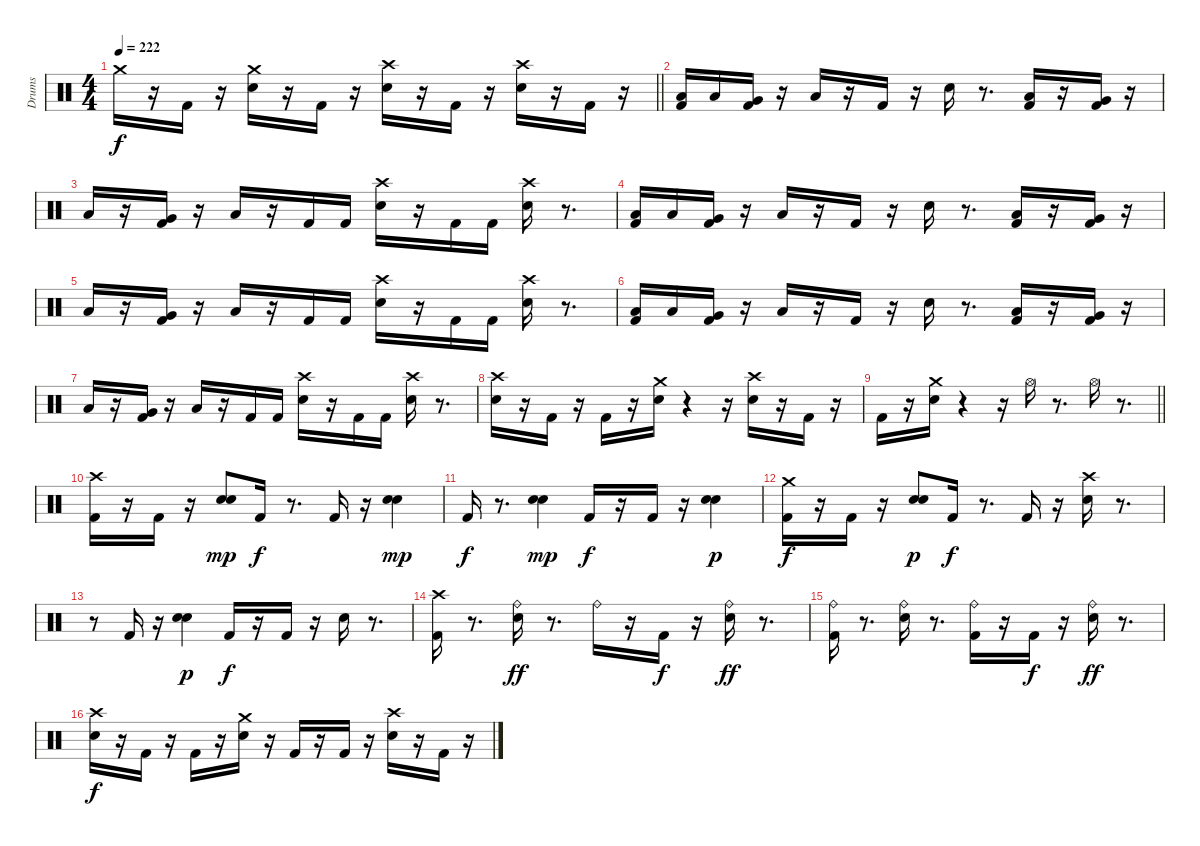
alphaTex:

\track ("Drums" "Drums") {instrument percussion}
\staff {score}
\articulation defaults
\ts (4 4)
\tempo 222
\clef neutral
\barLineRight lightlight
\ks c "Crash medium (hit)".16{dy f}
r.16 "Kick (hit) 2".16 r.16 ("Snare (hit) 2" "Crash medium (hit)").16 r.16 "Kick (hit) 2".16 r.16 ("Snare (hit) 2" "Crash high (hit)").16 r.16 "Kick (hit) 2".16 r.16 ("Snare (hit) 2" "Crash high (hit)").16 r.16 "Kick (hit) 2".16 r.16 |
\section ("" " ")
("Kick (hit) 2" "Low Tom (hit)").16 "Low Tom (hit)".16 ("Kick (hit) 2" "Very Low Tom (hit)").16 r.16 "Low Floor Tom (hit)".16 r.16 "Kick (hit) 2".16 r.16 "Snare (hit) 2".16 r.8{d} ("Kick (hit) 2" "Low Tom (hit)").16 r.16 ("Kick (hit) 2" "Very Low Tom (hit)").16 r.16 |
"Low Floor Tom (hit)".16 r.16 ("Kick (hit) 2" "Very Low Tom (hit)").16 r.16 "Low Floor Tom (hit)".16 r.16 "Kick (hit) 2".16 "Kick (hit) 2".16 ("Snare (hit) 2" "Crash high (hit)").16 r.16 "Kick (hit) 2".16 "Kick (hit) 2".16 ("Snare (hit) 2" "Crash high (hit)").16 r.8{d} |
("Kick (hit) 2" "Low Tom (hit)").16 "Low Tom (hit)".16 ("Kick (hit) 2" "Very Low Tom (hit)").16 r.16 "Low Floor Tom (hit)".16 r.16 "Kick (hit) 2".16 r.16 "Snare (hit) 2".16 r.8{d} ("Kick (hit) 2" "Low Tom (hit)").16 r.16 ("Kick (hit) 2" "Very Low Tom (hit)").16 r.16 |
"Low Floor Tom (hit)".16 r.16 ("Kick (hit) 2" "Very Low Tom (hit)").16 r.16 "Low Floor Tom (hit)".16 r.16 "Kick (hit) 2".16 "Kick (hit) 2".16 ("Snare (hit) 2" "Crash high (hit)").16 r.16 "Kick (hit) 2".16 "Kick (hit) 2".16 ("Snare (hit) 2" "Crash high (hit)").16 r.8{d} |
("Kick (hit) 2" "Low Tom (hit)").16 "Low Tom (hit)".16 ("Kick (hit) 2" "Very Low Tom (hit)").16 r.16 "Low Floor Tom (hit)".16 r.16 "Kick (hit) 2".16 r.16 "Snare (hit) 2".16 r.8{d} ("Kick (hit) 2" "Low Tom (hit)").16 r.16 ("Kick (hit) 2" "Very Low Tom (hit)").16 r.16 |
"Low Floor Tom (hit)".16 r.16 ("Kick (hit) 2" "Very Low Tom (hit)").16 r.16 "Low Floor Tom (hit)".16 r.16 "Kick (hit) 2".16 "Kick (hit) 2".16 ("Snare (hit) 2" "Crash high (hit)").16 r.16 "Kick (hit) 2".16 "Kick (hit) 2".16 ("Snare (hit) 2" "Crash high (hit)").16 r.8{d} |
("Snare (hit) 2" "Crash high (hit)").16 r.16 "Kick (hit) 2".16 r.16 "Kick (hit) 2".16 r.16 ("Snare (hit) 2" "Crash medium (hit)").16 r.4 r.16 ("Snare (hit) 2" "Crash high (hit)").16 r.16 "Kick (hit) 2".16 r.16 |
\barLineRight lightlight "Kick (hit) 2".16
r.16 ("Snare (hit) 2" "Crash medium (hit)").16 r.4 r.16 "Hi-Hat (open)".16 r.8{d} "Hi-Hat (open)".16 r.8{d} |
\section ("" " ")
("Kick (hit) 2" "Crash high (hit)").16 r.16 "Kick (hit) 2".16 r.16 ("Snare (hit) 2" "Snare (hit) 2").8{dy mp} "Kick (hit) 2".16{dy f} r.8{d} "Kick (hit) 2".16 r.16 ("Snare (hit) 2" "Snare (hit) 2").4{dy mp} |
"Kick (hit) 2".16{dy f} r.8{d} ("Snare (hit) 2" "Snare (hit) 2").4{dy mp} "Kick (hit) 2".16{dy f} r.16 "Kick (hit) 2".16 r.16 ("Snare (hit) 2" "Snare (hit) 2").4{dy p} |
("Kick (hit) 2" "Crash medium (hit)").16{dy f} r.16 "Kick (hit) 2".16 r.16 ("Snare (hit) 2" "Snare (hit) 2").8{dy p} "Kick (hit) 2".16{dy f} r.8{d} "Kick (hit) 2".16 r.16 ("Snare (hit) 2" "Crash high (hit)").16 r.8{d} |
r.8 "Kick (hit) 2".16 r.16 ("Snare (hit) 2" "Snare (hit) 2").4{dy p} "Kick (hit) 2".16{dy f} r.16 "Kick (hit) 2".16 r.16 "Snare (hit) 2".16 r.8{d} |
("Kick (hit) 2" "Crash high (hit)").16 r.8{d} ("Snare (hit) 2" "Ride (bell)").16{dy ff} r.8{d} "Ride (bell)".16 r.16 "Kick (hit) 2".16{dy f} r.16 ("Snare (hit) 2" "Ride (bell)").16{dy ff} r.8{d} |
("Kick (hit) 2" "Ride (bell)").16 r.8{d} ("Snare (hit) 2" "Ride (bell)").16 r.8{d} ("Kick (hit) 2" "Ride (bell)").16 r.16 "Kick (hit) 2".16{dy f} r.16 ("Snare (hit) 2" "Ride (bell)").16{dy ff} r.8{d} |
("Snare (hit) 2" "Crash high (hit)").16{dy f} r.16 "Kick (hit) 2".16 r.16 "Kick (hit) 2".16 r.16 ("Snare (hit) 2" "Crash medium (hit)").16 r.16 "Kick (hit) 2".16 r.16 "Kick (hit) 2".16 r.16 ("Snare (hit) 2" "Crash high (hit)").16 r.16 "Kick (hit) 2".16 r.16
